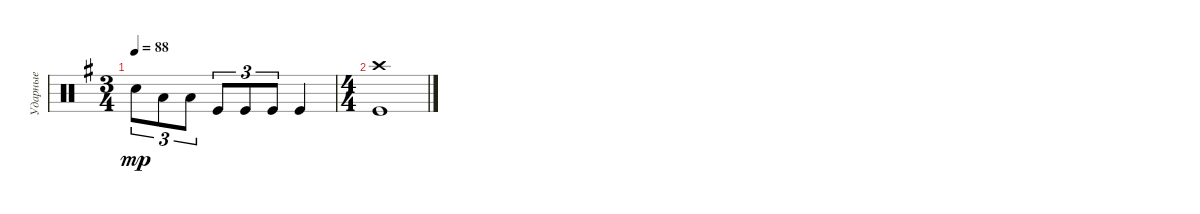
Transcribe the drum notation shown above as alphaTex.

\track ("Ударные" "Ударные") {instrument percussion}
\staff {score}
\articulation defaults
\ts (3 4)
\tempo 88
\clef neutral
\ks eminor "Snare (hit) 2".8{tu (3 2) dy mp} "Low Floor Tom (hit)".8{tu (3 2)} "Low Floor Tom (hit)".8{tu (3 2)} "Kick (hit)".8{tu (3 2)} "Kick (hit)".8{tu (3 2)} "Kick (hit)".8{tu (3 2)} "Kick (hit)".4
|
\ts (4 4)
("Kick (hit)" "Crash high (hit)").1
